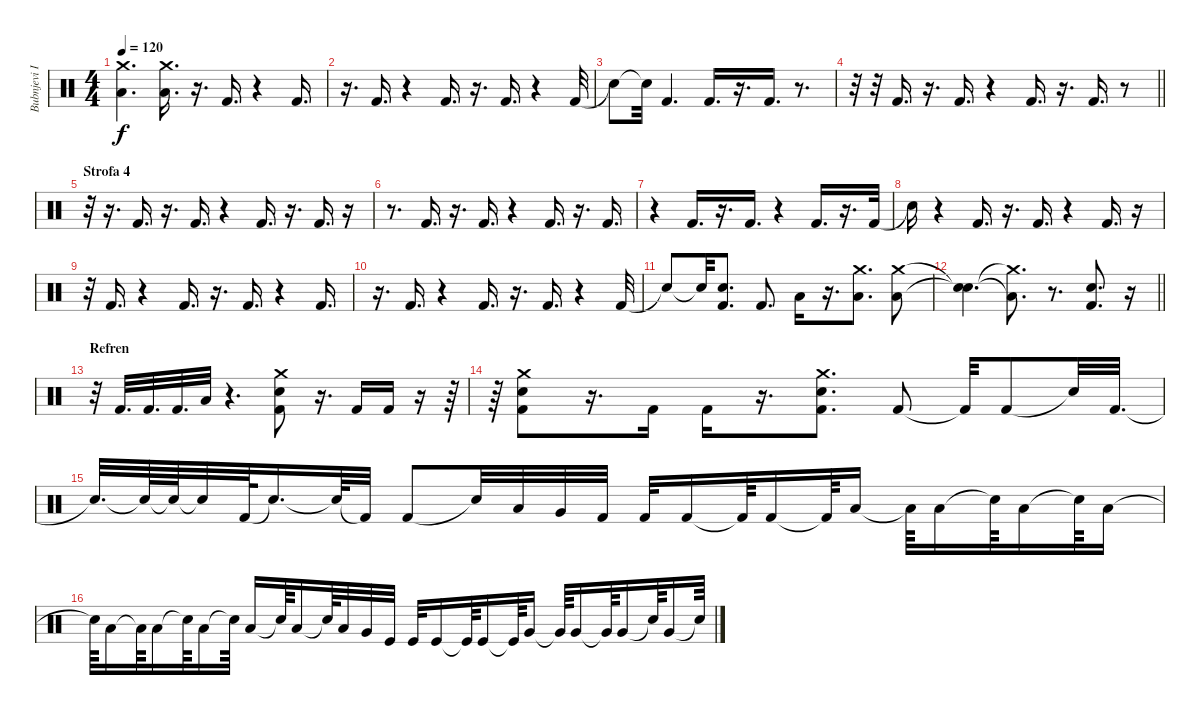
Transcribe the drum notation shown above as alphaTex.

\track ("Bubnjevi Ipe Ivandic" "Bubnjevi I") {instrument percussion}
\staff {score}
\articulation defaults
\ts (4 4)
\tempo 120
\clef neutral
\ks c
("Low Tom (hit)" "Crash medium (hit)").4{d dy f} ("Low Tom (hit)" "Crash medium (hit)").16{d} r.16{d} "Kick (hit) 2".16{d} r.4 "Kick (hit) 2".16{d} |
r.16{d} "Kick (hit) 2".16{d} r.4 "Kick (hit) 2".16{d} r.16{d} "Kick (hit) 2".16{d} r.4 "Kick (hit) 2".32 |
"Snare (hit)"{t}.8 "Snare (hit)"{t}.32 "Kick (hit) 2".4{d} "Kick (hit) 2".16{d} r.16{d} "Kick (hit) 2".16{d} r.8{d} |
\barLineRight lightlight
r.32 r.32 "Kick (hit) 2".16{d} r.16{d} "Kick (hit) 2".16{d} r.4 "Kick (hit) 2".16{d} r.16{d} "Kick (hit) 2".16{d} r.8 |
\section ("" "Strofa 4")
r.32 r.16{d} "Kick (hit) 2".16{d} r.16{d} "Kick (hit) 2".16{d} r.4 "Kick (hit) 2".16{d} r.16{d} "Kick (hit) 2".16{d} r.16 |
r.8{d} "Kick (hit) 2".16{d} r.16{d} "Kick (hit) 2".16{d} r.4 "Kick (hit) 2".16{d} r.16{d} "Kick (hit) 2".16{d} |
r.4 "Kick (hit) 2".16{d} r.16{d} "Kick (hit) 2".16{d} r.4 "Kick (hit) 2".16{d} r.16{d} "Kick (hit) 2".32 |
"Snare (hit)"{t}.16 r.4 "Kick (hit) 2".16{d} r.16{d} "Kick (hit) 2".16{d} r.4 "Kick (hit) 2".16{d} r.16 |
r.32 "Kick (hit) 2".16{d} r.4 "Kick (hit) 2".16{d} r.16{d} "Kick (hit) 2".16{d} r.4 "Kick (hit) 2".16{d} |
r.16{d} "Kick (hit) 2".16{d} r.4 "Kick (hit) 2".16{d} r.16{d} "Kick (hit) 2".16{d} r.4 "Kick (hit) 2".32 |
"Snare (hit)"{t}.8 "Snare (hit)"{t}.32 ("Kick (hit) 2" "Snare (hit) 2").8{d} "Kick (hit) 2".8{d} "Low Tom (hit)".16 r.16{d} ("Low Tom (hit)" "Crash medium (hit)").8{d} ("Low Tom (hit)" "Crash medium (hit)").8 |
\barLineRight lightlight
("Snare (hit)"{t} "Snare (hit)"{t}).4{d} ("Low Tom (hit)"{t} "Crash medium (hit)"{t}).8{d} r.8{d} ("Kick (hit) 2" "Snare (hit) 2").8{d} r.16 |
\section ("" "Refren")
r.32 "Kick (hit) 2".32{d} "Kick (hit) 2".32{d} "Kick (hit) 2".32{d} "Low Tom (hit)".32 r.4{d} ("Kick (hit) 2" "Snare (hit) 2" "Crash medium (hit)").8 r.16{d} "Kick (hit) 2".16 "Kick (hit) 2".16 r.16 r.64 |
r.64 ("Kick (hit) 2" "Snare (hit) 2" "Crash medium (hit)").8 r.16{d} "Kick (hit) 2".16 "Kick (hit) 2".16 r.16{d} ("Kick (hit) 2" "Snare (hit) 2" "Crash medium (hit)").8{d} "Kick (hit) 2".8 "Kick (hit) 2"{t}.32 "Kick (hit) 2".8 "Snare (hit)"{t}.32 "Kick (hit) 2".32{d} |
"Snare (hit)"{t}.32{d} "Snare (hit)"{t}.64 "Snare (hit)"{t}.64 "Snare (hit)"{t}.32 "Kick (hit) 2".64 "Snare (hit)"{t}.16{d} "Snare (hit)"{t}.64 "Kick (hit) 2"{t}.32 "Kick (hit) 2".8 "Snare (hit)"{t}.32 "Low Tom (hit)".32 "Very Low Tom (hit)".32 "Kick (hit) 2".32 "Kick (hit) 2".32 "Kick (hit) 2".16 "Kick (hit) 2"{t}.64 "Kick (hit) 2".16 "Kick (hit) 2"{t}.64 "Low Tom (hit)".16 "Low Tom (hit)"{t}.64 "Low Tom (hit)".16 "Snare (hit)"{t}.64 "Low Tom (hit)".16 "Snare (hit)"{t}.64 "Low Tom (hit)".16 |
"Snare (hit)"{t}.64 "Low Tom (hit)".16 "Low Tom (hit)"{t}.64 "Low Tom (hit)".16 "Snare (hit)"{t}.64 "Low Tom (hit)".16 "Snare (hit)"{t}.64 "Low Tom (hit)".16 "Snare (hit)"{t}.64 "Low Tom (hit)".16 "Snare (hit)"{t}.64 "Low Floor Tom (hit)".32 "Very Low Tom (hit)".32 "Kick (hit)".32 "Kick (hit)".32 "Kick (hit)".16 "Kick (hit)"{t}.64 "Kick (hit)".16 "Kick (hit)"{t}.64 "Very Low Tom (hit)".16 "Very Low Tom (hit)"{t}.64 "Very Low Tom (hit)".16 "Very Low Tom (hit)"{t}.64 "Very Low Tom (hit)".16 "Snare (hit)"{t}.64 "Very Low Tom (hit)".16 "Snare (hit)"{t}.64
